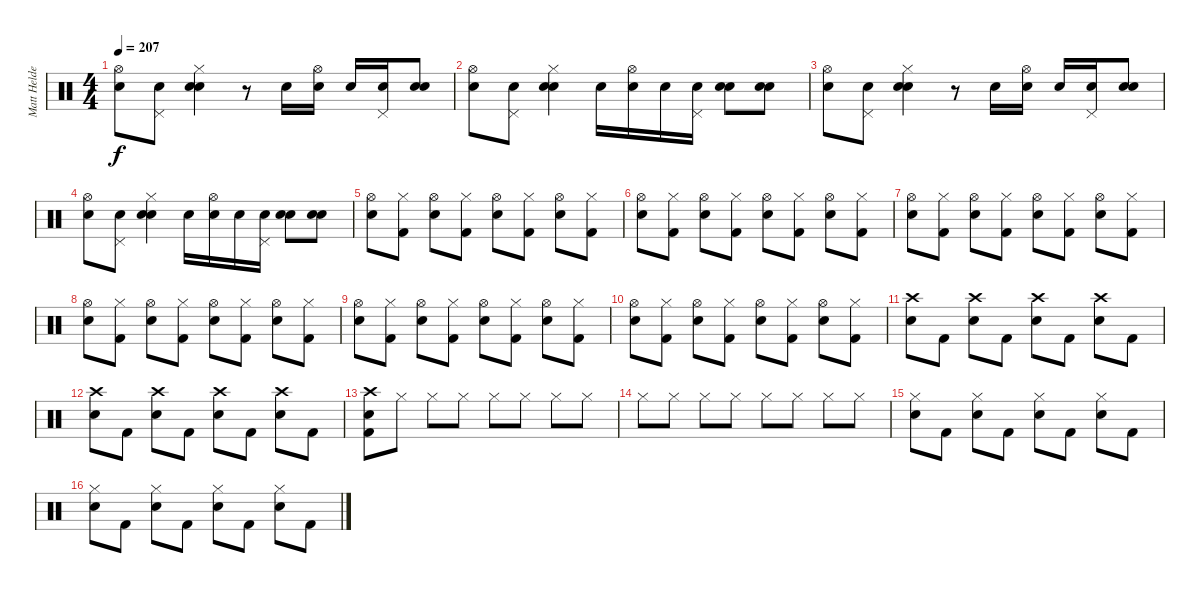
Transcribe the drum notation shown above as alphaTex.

\track ("Matt Helders - Drums" "Matt Helde") {instrument percussion}
\staff {score}
\articulation defaults
\ts (4 4)
\tempo 207
\clef neutral
\ks c
("Hi-Hat (open)" "Electric Snare (hit)").8{dy f} ("Pedal Hi-Hat (hit)" "Electric Snare (hit)").8 ("Hi-Hat (closed)" "Electric Snare (hit)" "Electric Snare (hit)").4 r.8 "Electric Snare (hit)".16 ("Hi-Hat (open)" "Electric Snare (hit)").16 "Electric Snare (hit)".16 ("Pedal Hi-Hat (hit)" "Electric Snare (hit)").16 ("Electric Snare (hit)" "Electric Snare (hit)").8 |
("Hi-Hat (open)" "Electric Snare (hit)").8 ("Pedal Hi-Hat (hit)" "Electric Snare (hit)").8 ("Hi-Hat (closed)" "Electric Snare (hit)" "Electric Snare (hit)").4 "Electric Snare (hit)".16 ("Hi-Hat (open)" "Electric Snare (hit)").16 "Electric Snare (hit)".16 ("Pedal Hi-Hat (hit)" "Electric Snare (hit)").16 ("Electric Snare (hit)" "Electric Snare (hit)").8 ("Electric Snare (hit)" "Electric Snare (hit)").8 |
("Hi-Hat (open)" "Electric Snare (hit)").8 ("Pedal Hi-Hat (hit)" "Electric Snare (hit)").8 ("Hi-Hat (closed)" "Electric Snare (hit)" "Electric Snare (hit)").4 r.8 "Electric Snare (hit)".16 ("Hi-Hat (open)" "Electric Snare (hit)").16 "Electric Snare (hit)".16 ("Pedal Hi-Hat (hit)" "Electric Snare (hit)").16 ("Electric Snare (hit)" "Electric Snare (hit)").8 |
("Hi-Hat (open)" "Electric Snare (hit)").8 ("Pedal Hi-Hat (hit)" "Electric Snare (hit)").8 ("Hi-Hat (closed)" "Electric Snare (hit)" "Electric Snare (hit)").4 "Electric Snare (hit)".16 ("Hi-Hat (open)" "Electric Snare (hit)").16 "Electric Snare (hit)".16 ("Pedal Hi-Hat (hit)" "Electric Snare (hit)").16 ("Electric Snare (hit)" "Electric Snare (hit)").8 ("Electric Snare (hit)" "Electric Snare (hit)").8 |
("Hi-Hat (open)" "Electric Snare (hit)").8 ("Hi-Hat (closed)" "Kick (hit) 2").8 ("Hi-Hat (open)" "Electric Snare (hit)").8 ("Hi-Hat (closed)" "Kick (hit) 2").8 ("Hi-Hat (open)" "Electric Snare (hit)").8 ("Hi-Hat (closed)" "Kick (hit) 2").8 ("Hi-Hat (open)" "Electric Snare (hit)").8 ("Hi-Hat (closed)" "Kick (hit) 2").8 |
("Hi-Hat (open)" "Electric Snare (hit)").8 ("Hi-Hat (closed)" "Kick (hit) 2").8 ("Hi-Hat (open)" "Electric Snare (hit)").8 ("Hi-Hat (closed)" "Kick (hit) 2").8 ("Hi-Hat (open)" "Electric Snare (hit)").8 ("Hi-Hat (closed)" "Kick (hit) 2").8 ("Hi-Hat (open)" "Electric Snare (hit)").8 ("Hi-Hat (closed)" "Kick (hit) 2").8 |
("Hi-Hat (open)" "Electric Snare (hit)").8 ("Hi-Hat (closed)" "Kick (hit) 2").8 ("Hi-Hat (open)" "Electric Snare (hit)").8 ("Hi-Hat (closed)" "Kick (hit) 2").8 ("Hi-Hat (open)" "Electric Snare (hit)").8 ("Hi-Hat (closed)" "Kick (hit) 2").8 ("Hi-Hat (open)" "Electric Snare (hit)").8 ("Hi-Hat (closed)" "Kick (hit) 2").8 |
("Hi-Hat (open)" "Electric Snare (hit)").8 ("Hi-Hat (closed)" "Kick (hit) 2").8 ("Hi-Hat (open)" "Electric Snare (hit)").8 ("Hi-Hat (closed)" "Kick (hit) 2").8 ("Hi-Hat (open)" "Electric Snare (hit)").8 ("Hi-Hat (closed)" "Kick (hit) 2").8 ("Hi-Hat (open)" "Electric Snare (hit)").8 ("Hi-Hat (closed)" "Kick (hit) 2").8 |
("Hi-Hat (open)" "Electric Snare (hit)").8 ("Hi-Hat (closed)" "Kick (hit) 2").8 ("Hi-Hat (open)" "Electric Snare (hit)").8 ("Hi-Hat (closed)" "Kick (hit) 2").8 ("Hi-Hat (open)" "Electric Snare (hit)").8 ("Hi-Hat (closed)" "Kick (hit) 2").8 ("Hi-Hat (open)" "Electric Snare (hit)").8 ("Hi-Hat (closed)" "Kick (hit) 2").8 |
("Hi-Hat (open)" "Electric Snare (hit)").8 ("Hi-Hat (closed)" "Kick (hit) 2").8 ("Hi-Hat (open)" "Electric Snare (hit)").8 ("Hi-Hat (closed)" "Kick (hit) 2").8 ("Hi-Hat (open)" "Electric Snare (hit)").8 ("Hi-Hat (closed)" "Kick (hit) 2").8 ("Hi-Hat (open)" "Electric Snare (hit)").8 ("Hi-Hat (closed)" "Kick (hit) 2").8 |
("Crash high (hit)" "Electric Snare (hit)").8 "Kick (hit) 2".8 ("Crash high (hit)" "Electric Snare (hit)").8 "Kick (hit) 2".8 ("Crash high (hit)" "Electric Snare (hit)").8 "Kick (hit) 2".8 ("Crash high (hit)" "Electric Snare (hit)").8 "Kick (hit) 2".8 |
("Crash high (hit)" "Electric Snare (hit)").8 "Kick (hit) 2".8 ("Crash high (hit)" "Electric Snare (hit)").8 "Kick (hit) 2".8 ("Crash high (hit)" "Electric Snare (hit)").8 "Kick (hit) 2".8 ("Crash high (hit)" "Electric Snare (hit)").8 "Kick (hit) 2".8 |
("Crash high (hit)" "Electric Snare (hit)" "Kick (hit) 2").8 "Hi-Hat (closed)".8 "Hi-Hat (closed)".8 "Hi-Hat (closed)".8 "Hi-Hat (closed)".8 "Hi-Hat (closed)".8 "Hi-Hat (closed)".8 "Hi-Hat (closed)".8 |
"Hi-Hat (closed)".8 "Hi-Hat (closed)".8 "Hi-Hat (closed)".8 "Hi-Hat (closed)".8 "Hi-Hat (closed)".8 "Hi-Hat (closed)".8 "Hi-Hat (closed)".8 "Hi-Hat (closed)".8 |
("Hi-Hat (closed)" "Electric Snare (hit)").8 "Kick (hit) 2".8 ("Hi-Hat (closed)" "Electric Snare (hit)").8 "Kick (hit) 2".8 ("Hi-Hat (closed)" "Electric Snare (hit)").8 "Kick (hit) 2".8 ("Hi-Hat (closed)" "Electric Snare (hit)").8 "Kick (hit) 2".8 |
("Hi-Hat (closed)" "Electric Snare (hit)").8 "Kick (hit) 2".8 ("Hi-Hat (closed)" "Electric Snare (hit)").8 "Kick (hit) 2".8 ("Hi-Hat (closed)" "Electric Snare (hit)").8 "Kick (hit) 2".8 ("Hi-Hat (closed)" "Electric Snare (hit)").8 "Kick (hit) 2".8
